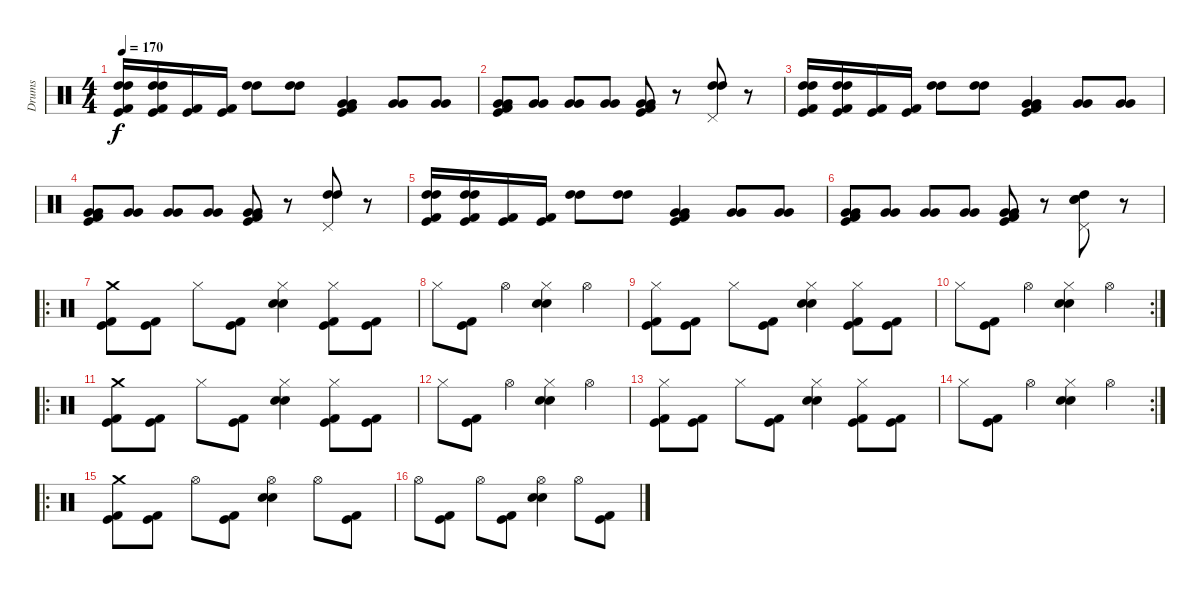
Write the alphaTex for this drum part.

\track ("Drums" "Drums") {instrument percussion}
\staff {score}
\articulation defaults
\ts (4 4)
\tempo 170
\clef neutral
\ks c
("High Tom (hit)" "High Tom (hit)" "Kick (hit) 2" "Kick (hit)").16{dy f} ("High Tom (hit)" "High Tom (hit)" "Kick (hit) 2" "Kick (hit)").16 ("Kick (hit) 2" "Kick (hit)").16 ("Kick (hit) 2" "Kick (hit)").16 ("High Tom (hit)" "High Tom (hit)").8 ("High Tom (hit)" "High Tom (hit)").8 ("Very Low Tom (hit)" "Very Low Tom (hit)" "Kick (hit) 2" "Kick (hit)").4 ("Very Low Tom (hit)" "Very Low Tom (hit)").8 ("Very Low Tom (hit)" "Very Low Tom (hit)").8 |
("Very Low Tom (hit)" "Very Low Tom (hit)" "Kick (hit) 2" "Kick (hit)").8 ("Very Low Tom (hit)" "Very Low Tom (hit)").8 ("Very Low Tom (hit)" "Very Low Tom (hit)").8 ("Very Low Tom (hit)" "Very Low Tom (hit)").8 ("Very Low Tom (hit)" "Very Low Tom (hit)" "Kick (hit) 2" "Kick (hit)").8 r.8 ("Pedal Hi-Hat (hit)" "High Tom (hit)" "High Tom (hit)").8 r.8 |
("High Tom (hit)" "High Tom (hit)" "Kick (hit) 2" "Kick (hit)").16 ("High Tom (hit)" "High Tom (hit)" "Kick (hit) 2" "Kick (hit)").16 ("Kick (hit) 2" "Kick (hit)").16 ("Kick (hit) 2" "Kick (hit)").16 ("High Tom (hit)" "High Tom (hit)").8 ("High Tom (hit)" "High Tom (hit)").8 ("Very Low Tom (hit)" "Very Low Tom (hit)" "Kick (hit) 2" "Kick (hit)").4 ("Very Low Tom (hit)" "Very Low Tom (hit)").8 ("Very Low Tom (hit)" "Very Low Tom (hit)").8 |
("Very Low Tom (hit)" "Very Low Tom (hit)" "Kick (hit) 2" "Kick (hit)").8 ("Very Low Tom (hit)" "Very Low Tom (hit)").8 ("Very Low Tom (hit)" "Very Low Tom (hit)").8 ("Very Low Tom (hit)" "Very Low Tom (hit)").8 ("Very Low Tom (hit)" "Very Low Tom (hit)" "Kick (hit) 2" "Kick (hit)").8 r.8 ("Pedal Hi-Hat (hit)" "High Tom (hit)" "High Tom (hit)").8 r.8 |
("High Tom (hit)" "High Tom (hit)" "Kick (hit) 2" "Kick (hit)").16 ("High Tom (hit)" "High Tom (hit)" "Kick (hit) 2" "Kick (hit)").16 ("Kick (hit) 2" "Kick (hit)").16 ("Kick (hit) 2" "Kick (hit)").16 ("High Tom (hit)" "High Tom (hit)").8 ("High Tom (hit)" "High Tom (hit)").8 ("Very Low Tom (hit)" "Very Low Tom (hit)" "Kick (hit) 2" "Kick (hit)").4 ("Very Low Tom (hit)" "Very Low Tom (hit)").8 ("Very Low Tom (hit)" "Very Low Tom (hit)").8 |
("Very Low Tom (hit)" "Very Low Tom (hit)" "Kick (hit) 2" "Kick (hit)").8 ("Very Low Tom (hit)" "Very Low Tom (hit)").8 ("Very Low Tom (hit)" "Very Low Tom (hit)").8 ("Very Low Tom (hit)" "Very Low Tom (hit)").8 ("Very Low Tom (hit)" "Very Low Tom (hit)" "Kick (hit) 2" "Kick (hit)").8 r.8 ("Pedal Hi-Hat (hit)" "High Tom (hit)" "Electric Snare (hit)" "Snare (hit) 2").8 r.8 |
\ro
("Crash medium (hit)" "Kick (hit) 2" "Kick (hit)").8 ("Kick (hit) 2" "Kick (hit)").8 "Hi-Hat (closed)".8 ("Kick (hit) 2" "Kick (hit)").8 ("Hi-Hat (closed)" "Electric Snare (hit)" "Snare (hit) 2").4 ("Hi-Hat (closed)" "Kick (hit) 2" "Kick (hit)").8 ("Kick (hit) 2" "Kick (hit)").8 |
"Hi-Hat (closed)".8 ("Kick (hit) 2" "Kick (hit)").8 "Hi-Hat (open)".4 ("Hi-Hat (closed)" "Electric Snare (hit)" "Snare (hit) 2").4 "Hi-Hat (open)".4 |
("Hi-Hat (closed)" "Kick (hit) 2" "Kick (hit)").8 ("Kick (hit) 2" "Kick (hit)").8 "Hi-Hat (closed)".8 ("Kick (hit) 2" "Kick (hit)").8 ("Hi-Hat (closed)" "Electric Snare (hit)" "Snare (hit) 2").4 ("Hi-Hat (closed)" "Kick (hit) 2" "Kick (hit)").8 ("Kick (hit) 2" "Kick (hit)").8 |
\rc 2 "Hi-Hat (closed)".8
("Kick (hit) 2" "Kick (hit)").8 "Hi-Hat (open)".4 ("Hi-Hat (closed)" "Electric Snare (hit)" "Snare (hit) 2").4 "Hi-Hat (open)".4 |
\ro
("Crash medium (hit)" "Kick (hit) 2" "Kick (hit)").8 ("Kick (hit) 2" "Kick (hit)").8 "Hi-Hat (closed)".8 ("Kick (hit) 2" "Kick (hit)").8 ("Hi-Hat (closed)" "Electric Snare (hit)" "Snare (hit) 2").4 ("Hi-Hat (closed)" "Kick (hit) 2" "Kick (hit)").8 ("Kick (hit) 2" "Kick (hit)").8 |
"Hi-Hat (closed)".8 ("Kick (hit) 2" "Kick (hit)").8 "Hi-Hat (open)".4 ("Hi-Hat (closed)" "Electric Snare (hit)" "Snare (hit) 2").4 "Hi-Hat (open)".4 |
("Hi-Hat (closed)" "Kick (hit) 2" "Kick (hit)").8 ("Kick (hit) 2" "Kick (hit)").8 "Hi-Hat (closed)".8 ("Kick (hit) 2" "Kick (hit)").8 ("Hi-Hat (closed)" "Electric Snare (hit)" "Snare (hit) 2").4 ("Hi-Hat (closed)" "Kick (hit) 2" "Kick (hit)").8 ("Kick (hit) 2" "Kick (hit)").8 |
\rc 2 "Hi-Hat (closed)".8
("Kick (hit) 2" "Kick (hit)").8 "Hi-Hat (open)".4 ("Hi-Hat (closed)" "Electric Snare (hit)" "Snare (hit) 2").4 "Hi-Hat (open)".4 |
\ro
("Crash medium (hit)" "Kick (hit) 2" "Kick (hit)").8 ("Kick (hit) 2" "Kick (hit)").8 "Hi-Hat (open)".8 ("Kick (hit) 2" "Kick (hit)").8 ("Hi-Hat (open)" "Electric Snare (hit)" "Snare (hit) 2").4 "Hi-Hat (open)".8 ("Kick (hit) 2" "Kick (hit)").8 |
"Hi-Hat (open)".8 ("Kick (hit) 2" "Kick (hit)").8 "Hi-Hat (open)".8 ("Kick (hit) 2" "Kick (hit)").8 ("Hi-Hat (open)" "Electric Snare (hit)" "Snare (hit) 2").4 "Hi-Hat (open)".8 ("Kick (hit) 2" "Kick (hit)").8
